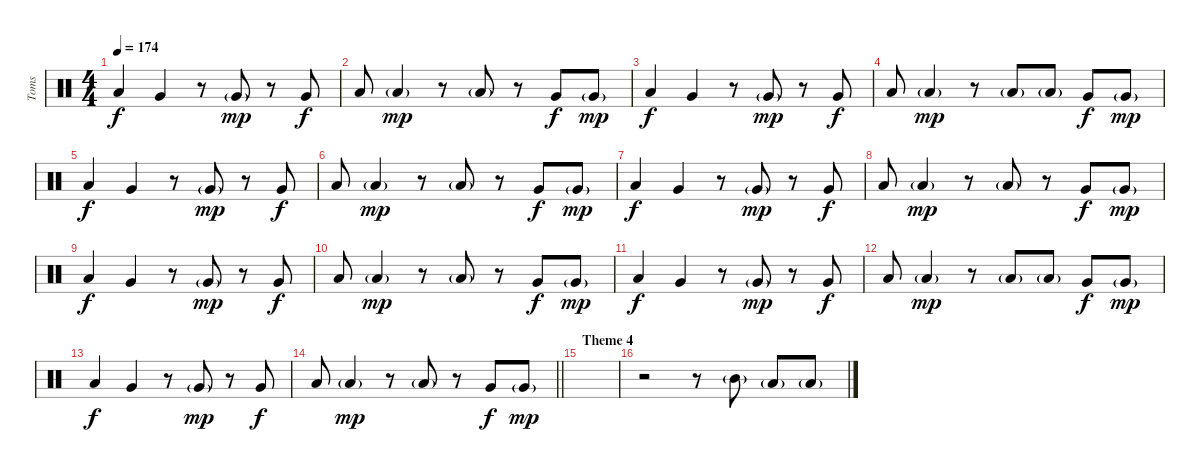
\track ("Toms" "Toms") {instrument percussion}
\staff {score}
\articulation defaults
\ts (4 4)
\tempo 174
\clef neutral
\ks c "Low Tom (hit)".4{dy f} "Very Low Tom (hit)".4
r.8 "Very Low Tom (hit)"{g}.8{dy mp} r.8 "Very Low Tom (hit)".8{dy f} |
"Low Tom (hit)".8 "Low Floor Tom (hit)"{g}.4{dy mp} r.8 "Low Floor Tom (hit)"{g}.8 r.8 "Very Low Tom (hit)".8{dy f} "Very Low Tom (hit)"{g}.8{dy mp} |
"Low Tom (hit)".4{dy f} "Very Low Tom (hit)".4 r.8 "Very Low Tom (hit)"{g}.8{dy mp} r.8 "Very Low Tom (hit)".8{dy f} |
"Low Tom (hit)".8 "Low Floor Tom (hit)"{g}.4{dy mp} r.8 "Low Floor Tom (hit)"{g}.8 "Low Floor Tom (hit)"{g}.8 "Very Low Tom (hit)".8{dy f} "Very Low Tom (hit)"{g}.8{dy mp} |
"Low Tom (hit)".4{dy f} "Very Low Tom (hit)".4 r.8 "Very Low Tom (hit)"{g}.8{dy mp} r.8 "Very Low Tom (hit)".8{dy f} |
"Low Tom (hit)".8 "Low Floor Tom (hit)"{g}.4{dy mp} r.8 "Low Floor Tom (hit)"{g}.8 r.8 "Very Low Tom (hit)".8{dy f} "Very Low Tom (hit)"{g}.8{dy mp} |
"Low Tom (hit)".4{dy f} "Very Low Tom (hit)".4 r.8 "Very Low Tom (hit)"{g}.8{dy mp} r.8 "Very Low Tom (hit)".8{dy f} |
"Low Tom (hit)".8 "Low Floor Tom (hit)"{g}.4{dy mp} r.8 "Low Floor Tom (hit)"{g}.8 r.8 "Very Low Tom (hit)".8{dy f} "Very Low Tom (hit)"{g}.8{dy mp} |
"Low Tom (hit)".4{dy f} "Very Low Tom (hit)".4 r.8 "Very Low Tom (hit)"{g}.8{dy mp} r.8 "Very Low Tom (hit)".8{dy f} |
"Low Tom (hit)".8 "Low Floor Tom (hit)"{g}.4{dy mp} r.8 "Low Floor Tom (hit)"{g}.8 r.8 "Very Low Tom (hit)".8{dy f} "Very Low Tom (hit)"{g}.8{dy mp} |
"Low Tom (hit)".4{dy f} "Very Low Tom (hit)".4 r.8 "Very Low Tom (hit)"{g}.8{dy mp} r.8 "Very Low Tom (hit)".8{dy f} |
"Low Tom (hit)".8 "Low Floor Tom (hit)"{g}.4{dy mp} r.8 "Low Floor Tom (hit)"{g}.8 "Low Floor Tom (hit)"{g}.8 "Very Low Tom (hit)".8{dy f} "Very Low Tom (hit)"{g}.8{dy mp} |
"Low Tom (hit)".4{dy f} "Very Low Tom (hit)".4 r.8 "Very Low Tom (hit)"{g}.8{dy mp} r.8 "Very Low Tom (hit)".8{dy f} |
\barLineRight lightlight "Low Tom (hit)".8 "Low Floor Tom (hit)"{g}.4{dy mp}
r.8 "Low Floor Tom (hit)"{g}.8 r.8 "Very Low Tom (hit)".8{dy f} "Very Low Tom (hit)"{g}.8{dy mp} |
\section ("" "Theme 4")
|
r.2 r.8 "Mid Tom (hit)"{g}.8 "Low Tom (hit)"{g}.8 "Low Tom (hit)"{g}.8
